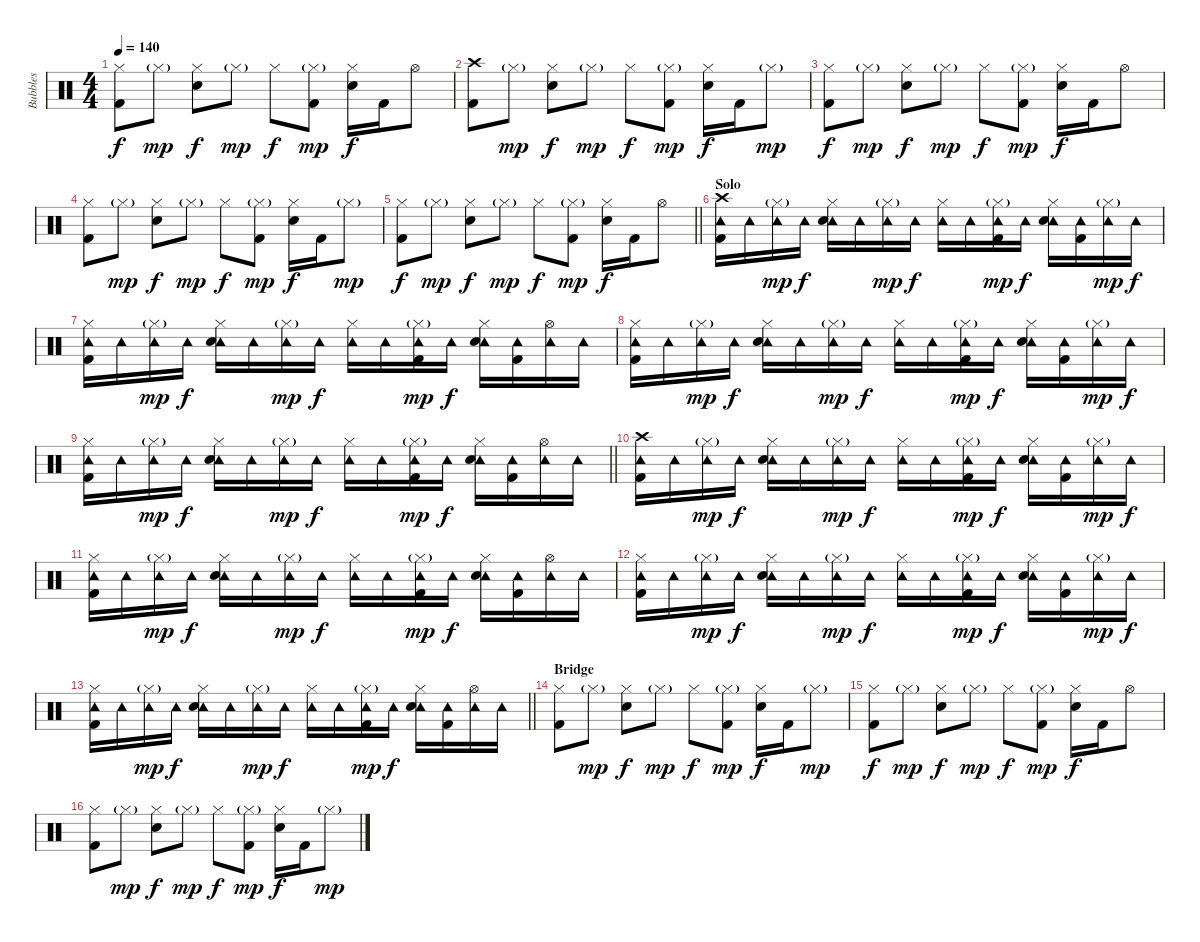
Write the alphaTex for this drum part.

\track ("Bubbles" "Bubbles") {instrument percussion}
\staff {score}
\articulation defaults
\ts (4 4)
\tempo 140
\clef neutral
\ks c
("Hi-Hat (closed)" "Kick (hit) 2").8{dy f} "Hi-Hat (closed)"{g}.8{dy mp} ("Hi-Hat (closed)" "Snare (hit) 2").8{dy f} "Hi-Hat (closed)"{g}.8{dy mp} "Hi-Hat (closed)".8{dy f} ("Hi-Hat (closed)"{g} "Kick (hit) 2").8{dy mp} ("Hi-Hat (closed)" "Snare (hit) 2").16{dy f} "Kick (hit) 2".16 "Hi-Hat (open)".8 |
("Crash high (hit)" "Kick (hit) 2").8 "Hi-Hat (closed)"{g}.8{dy mp} ("Hi-Hat (closed)" "Snare (hit) 2").8{dy f} "Hi-Hat (closed)"{g}.8{dy mp} "Hi-Hat (closed)".8{dy f} ("Hi-Hat (closed)"{g} "Kick (hit) 2").8{dy mp} ("Hi-Hat (closed)" "Snare (hit) 2").16{dy f} "Kick (hit) 2".16 "Hi-Hat (closed)"{g}.8{dy mp} |
("Hi-Hat (closed)" "Kick (hit) 2").8{dy f} "Hi-Hat (closed)"{g}.8{dy mp} ("Hi-Hat (closed)" "Snare (hit) 2").8{dy f} "Hi-Hat (closed)"{g}.8{dy mp} "Hi-Hat (closed)".8{dy f} ("Hi-Hat (closed)"{g} "Kick (hit) 2").8{dy mp} ("Hi-Hat (closed)" "Snare (hit) 2").16{dy f} "Kick (hit) 2".16 "Hi-Hat (open)".8 |
("Hi-Hat (closed)" "Kick (hit) 2").8 "Hi-Hat (closed)"{g}.8{dy mp} ("Hi-Hat (closed)" "Snare (hit) 2").8{dy f} "Hi-Hat (closed)"{g}.8{dy mp} "Hi-Hat (closed)".8{dy f} ("Hi-Hat (closed)"{g} "Kick (hit) 2").8{dy mp} ("Hi-Hat (closed)" "Snare (hit) 2").16{dy f} "Kick (hit) 2".16 "Hi-Hat (closed)"{g}.8{dy mp} |
\barLineRight lightlight
("Hi-Hat (closed)" "Kick (hit) 2").8{dy f} "Hi-Hat (closed)"{g}.8{dy mp} ("Hi-Hat (closed)" "Snare (hit) 2").8{dy f} "Hi-Hat (closed)"{g}.8{dy mp} "Hi-Hat (closed)".8{dy f} ("Hi-Hat (closed)"{g} "Kick (hit) 2").8{dy mp} ("Hi-Hat (closed)" "Snare (hit) 2").16{dy f} "Kick (hit) 2".16 "Hi-Hat (open)".8 |
\section ("" "Solo")
("Crash high (hit)" "Tambourine (hit)" "Kick (hit) 2").16 "Tambourine (hit)".16 ("Tambourine (hit)" "Hi-Hat (closed)"{g}).16{dy mp} "Tambourine (hit)".16{dy f} ("Tambourine (hit)" "Hi-Hat (closed)" "Snare (hit) 2").16 "Tambourine (hit)".16 ("Tambourine (hit)" "Hi-Hat (closed)"{g}).16{dy mp} "Tambourine (hit)".16{dy f} ("Tambourine (hit)" "Hi-Hat (closed)").16 "Tambourine (hit)".16 ("Tambourine (hit)" "Hi-Hat (closed)"{g} "Kick (hit) 2").16{dy mp} "Tambourine (hit)".16{dy f} ("Tambourine (hit)" "Hi-Hat (closed)" "Snare (hit) 2").16 ("Tambourine (hit)" "Kick (hit) 2").16 ("Tambourine (hit)" "Hi-Hat (closed)"{g}).16{dy mp} "Tambourine (hit)".16{dy f} |
("Tambourine (hit)" "Hi-Hat (closed)" "Kick (hit) 2").16 "Tambourine (hit)".16 ("Tambourine (hit)" "Hi-Hat (closed)"{g}).16{dy mp} "Tambourine (hit)".16{dy f} ("Tambourine (hit)" "Hi-Hat (closed)" "Snare (hit) 2").16 "Tambourine (hit)".16 ("Tambourine (hit)" "Hi-Hat (closed)"{g}).16{dy mp} "Tambourine (hit)".16{dy f} ("Tambourine (hit)" "Hi-Hat (closed)").16 "Tambourine (hit)".16 ("Tambourine (hit)" "Hi-Hat (closed)"{g} "Kick (hit) 2").16{dy mp} "Tambourine (hit)".16{dy f} ("Tambourine (hit)" "Hi-Hat (closed)" "Snare (hit) 2").16 ("Tambourine (hit)" "Kick (hit) 2").16 ("Tambourine (hit)" "Hi-Hat (open)").16 "Tambourine (hit)".16 |
("Tambourine (hit)" "Hi-Hat (closed)" "Kick (hit) 2").16 "Tambourine (hit)".16 ("Tambourine (hit)" "Hi-Hat (closed)"{g}).16{dy mp} "Tambourine (hit)".16{dy f} ("Tambourine (hit)" "Hi-Hat (closed)" "Snare (hit) 2").16 "Tambourine (hit)".16 ("Tambourine (hit)" "Hi-Hat (closed)"{g}).16{dy mp} "Tambourine (hit)".16{dy f} ("Tambourine (hit)" "Hi-Hat (closed)").16 "Tambourine (hit)".16 ("Tambourine (hit)" "Hi-Hat (closed)"{g} "Kick (hit) 2").16{dy mp} "Tambourine (hit)".16{dy f} ("Tambourine (hit)" "Hi-Hat (closed)" "Snare (hit) 2").16 ("Tambourine (hit)" "Kick (hit) 2").16 ("Tambourine (hit)" "Hi-Hat (closed)"{g}).16{dy mp} "Tambourine (hit)".16{dy f} |
\barLineRight lightlight
("Tambourine (hit)" "Hi-Hat (closed)" "Kick (hit) 2").16 "Tambourine (hit)".16 ("Tambourine (hit)" "Hi-Hat (closed)"{g}).16{dy mp} "Tambourine (hit)".16{dy f} ("Tambourine (hit)" "Hi-Hat (closed)" "Snare (hit) 2").16 "Tambourine (hit)".16 ("Tambourine (hit)" "Hi-Hat (closed)"{g}).16{dy mp} "Tambourine (hit)".16{dy f} ("Tambourine (hit)" "Hi-Hat (closed)").16 "Tambourine (hit)".16 ("Tambourine (hit)" "Hi-Hat (closed)"{g} "Kick (hit) 2").16{dy mp} "Tambourine (hit)".16{dy f} ("Tambourine (hit)" "Hi-Hat (closed)" "Snare (hit) 2").16 ("Tambourine (hit)" "Kick (hit) 2").16 ("Tambourine (hit)" "Hi-Hat (open)").16 "Tambourine (hit)".16 |
("Crash high (hit)" "Tambourine (hit)" "Kick (hit) 2").16 "Tambourine (hit)".16 ("Tambourine (hit)" "Hi-Hat (closed)"{g}).16{dy mp} "Tambourine (hit)".16{dy f} ("Tambourine (hit)" "Hi-Hat (closed)" "Snare (hit) 2").16 "Tambourine (hit)".16 ("Tambourine (hit)" "Hi-Hat (closed)"{g}).16{dy mp} "Tambourine (hit)".16{dy f} ("Tambourine (hit)" "Hi-Hat (closed)").16 "Tambourine (hit)".16 ("Tambourine (hit)" "Hi-Hat (closed)"{g} "Kick (hit) 2").16{dy mp} "Tambourine (hit)".16{dy f} ("Tambourine (hit)" "Hi-Hat (closed)" "Snare (hit) 2").16 ("Tambourine (hit)" "Kick (hit) 2").16 ("Tambourine (hit)" "Hi-Hat (closed)"{g}).16{dy mp} "Tambourine (hit)".16{dy f} |
("Tambourine (hit)" "Hi-Hat (closed)" "Kick (hit) 2").16 "Tambourine (hit)".16 ("Tambourine (hit)" "Hi-Hat (closed)"{g}).16{dy mp} "Tambourine (hit)".16{dy f} ("Tambourine (hit)" "Hi-Hat (closed)" "Snare (hit) 2").16 "Tambourine (hit)".16 ("Tambourine (hit)" "Hi-Hat (closed)"{g}).16{dy mp} "Tambourine (hit)".16{dy f} ("Tambourine (hit)" "Hi-Hat (closed)").16 "Tambourine (hit)".16 ("Tambourine (hit)" "Hi-Hat (closed)"{g} "Kick (hit) 2").16{dy mp} "Tambourine (hit)".16{dy f} ("Tambourine (hit)" "Hi-Hat (closed)" "Snare (hit) 2").16 ("Tambourine (hit)" "Kick (hit) 2").16 ("Tambourine (hit)" "Hi-Hat (open)").16 "Tambourine (hit)".16 |
("Tambourine (hit)" "Hi-Hat (closed)" "Kick (hit) 2").16 "Tambourine (hit)".16 ("Tambourine (hit)" "Hi-Hat (closed)"{g}).16{dy mp} "Tambourine (hit)".16{dy f} ("Tambourine (hit)" "Hi-Hat (closed)" "Snare (hit) 2").16 "Tambourine (hit)".16 ("Tambourine (hit)" "Hi-Hat (closed)"{g}).16{dy mp} "Tambourine (hit)".16{dy f} ("Tambourine (hit)" "Hi-Hat (closed)").16 "Tambourine (hit)".16 ("Tambourine (hit)" "Hi-Hat (closed)"{g} "Kick (hit) 2").16{dy mp} "Tambourine (hit)".16{dy f} ("Tambourine (hit)" "Hi-Hat (closed)" "Snare (hit) 2").16 ("Tambourine (hit)" "Kick (hit) 2").16 ("Tambourine (hit)" "Hi-Hat (closed)"{g}).16{dy mp} "Tambourine (hit)".16{dy f} |
\barLineRight lightlight
("Tambourine (hit)" "Hi-Hat (closed)" "Kick (hit) 2").16 "Tambourine (hit)".16 ("Tambourine (hit)" "Hi-Hat (closed)"{g}).16{dy mp} "Tambourine (hit)".16{dy f} ("Tambourine (hit)" "Hi-Hat (closed)" "Snare (hit) 2").16 "Tambourine (hit)".16 ("Tambourine (hit)" "Hi-Hat (closed)"{g}).16{dy mp} "Tambourine (hit)".16{dy f} ("Tambourine (hit)" "Hi-Hat (closed)").16 "Tambourine (hit)".16 ("Tambourine (hit)" "Hi-Hat (closed)"{g} "Kick (hit) 2").16{dy mp} "Tambourine (hit)".16{dy f} ("Tambourine (hit)" "Hi-Hat (closed)" "Snare (hit) 2").16 ("Tambourine (hit)" "Kick (hit) 2").16 ("Tambourine (hit)" "Hi-Hat (open)").16 "Tambourine (hit)".16 |
\section ("" "Bridge")
("Hi-Hat (closed)" "Kick (hit) 2").8 "Hi-Hat (closed)"{g}.8{dy mp} ("Hi-Hat (closed)" "Snare (hit) 2").8{dy f} "Hi-Hat (closed)"{g}.8{dy mp} "Hi-Hat (closed)".8{dy f} ("Hi-Hat (closed)"{g} "Kick (hit) 2").8{dy mp} ("Hi-Hat (closed)" "Snare (hit) 2").16{dy f} "Kick (hit) 2".16 "Hi-Hat (closed)"{g}.8{dy mp} |
("Hi-Hat (closed)" "Kick (hit) 2").8{dy f} "Hi-Hat (closed)"{g}.8{dy mp} ("Hi-Hat (closed)" "Snare (hit) 2").8{dy f} "Hi-Hat (closed)"{g}.8{dy mp} "Hi-Hat (closed)".8{dy f} ("Hi-Hat (closed)"{g} "Kick (hit) 2").8{dy mp} ("Hi-Hat (closed)" "Snare (hit) 2").16{dy f} "Kick (hit) 2".16 "Hi-Hat (open)".8 |
("Hi-Hat (closed)" "Kick (hit) 2").8 "Hi-Hat (closed)"{g}.8{dy mp} ("Hi-Hat (closed)" "Snare (hit) 2").8{dy f} "Hi-Hat (closed)"{g}.8{dy mp} "Hi-Hat (closed)".8{dy f} ("Hi-Hat (closed)"{g} "Kick (hit) 2").8{dy mp} ("Hi-Hat (closed)" "Snare (hit) 2").16{dy f} "Kick (hit) 2".16 "Hi-Hat (closed)"{g}.8{dy mp}
